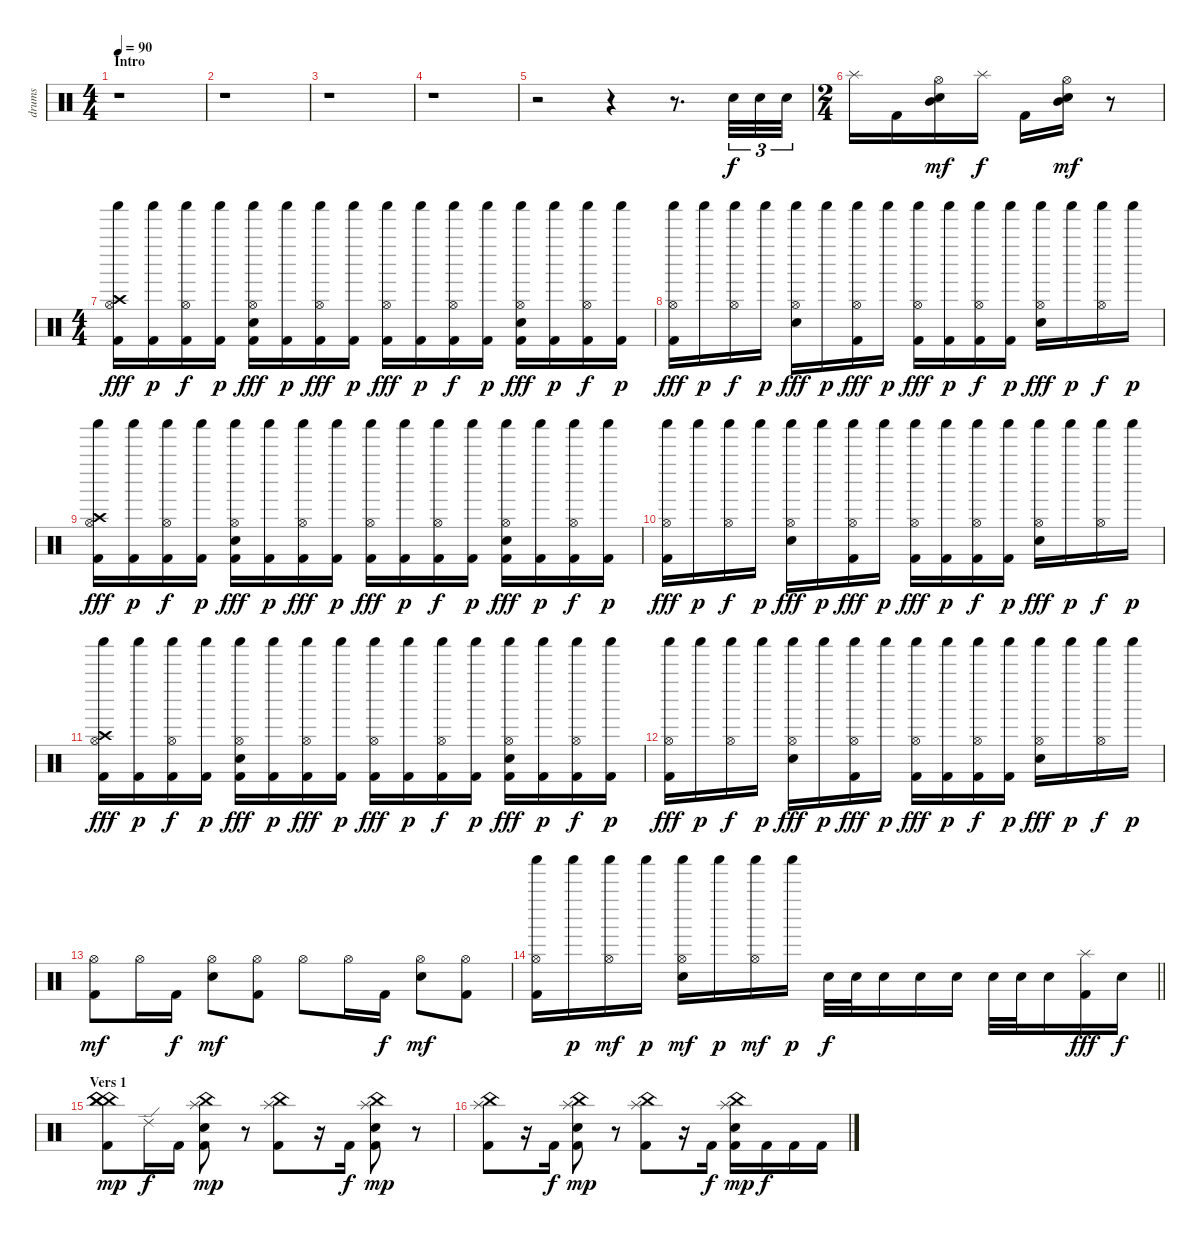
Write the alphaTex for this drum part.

\track ("drums" "drums") {instrument percussion}
\staff {score}
\articulation defaults
\ts (4 4)
\section ("" "Intro")
\tempo 90
\clef neutral
\ks c
r.1{dy f} |
r.1 |
r.1 |
r.1 |
r.2 r.4 r.8{d} "Snare (hit) 2".32{tu (3 2)} "Snare (hit) 2".32{tu (3 2)} "Snare (hit) 2".32{tu (3 2)} |
\ts (2 4)
"Splash (hit)".16 "Kick (hit) 2".16 ("Mid Tom (hit)" "Hi-Hat (open)" "Snare (hit) 2").16{dy mf} "Splash (hit)".16{dy f} "Kick (hit) 2".16 ("Mid Tom (hit)" "Hi-Hat (open)" "Snare (hit) 2").16{dy mf} r.8 |
\ts (4 4)
("Kick (hit) 2" "Crash high (hit)" "Shaker (hit)" "Hi-Hat (open)").16{dy fff} ("Kick (hit) 2" "Shaker (hit)").16{dy p} ("Kick (hit) 2" "Shaker (hit)" "Hi-Hat (open)").16{dy f} ("Kick (hit) 2" "Shaker (hit)").16{dy p} ("Kick (hit) 2" "Shaker (hit)" "Hi-Hat (open)" "Snare (hit) 2").16{dy fff} ("Kick (hit) 2" "Shaker (hit)").16{dy p} ("Kick (hit) 2" "Shaker (hit)" "Hi-Hat (open)").16{dy fff} ("Kick (hit) 2" "Shaker (hit)").16{dy p} ("Kick (hit) 2" "Shaker (hit)" "Hi-Hat (open)").16{dy fff} ("Kick (hit) 2" "Shaker (hit)").16{dy p} ("Kick (hit) 2" "Shaker (hit)" "Hi-Hat (open)").16{dy f} ("Kick (hit) 2" "Shaker (hit)").16{dy p} ("Kick (hit) 2" "Shaker (hit)" "Hi-Hat (open)" "Snare (hit) 2").16{dy fff} ("Kick (hit) 2" "Shaker (hit)").16{dy p} ("Kick (hit) 2" "Shaker (hit)" "Hi-Hat (open)").16{dy f} ("Kick (hit) 2" "Shaker (hit)").16{dy p} |
("Kick (hit) 2" "Shaker (hit)" "Hi-Hat (open)").16{dy fff} "Shaker (hit)".16{dy p} ("Shaker (hit)" "Hi-Hat (open)").16{dy f} "Shaker (hit)".16{dy p} ("Shaker (hit)" "Hi-Hat (open)" "Snare (hit) 2").16{dy fff} "Shaker (hit)".16{dy p} ("Kick (hit) 2" "Shaker (hit)" "Hi-Hat (open)").16{dy fff} "Shaker (hit)".16{dy p} ("Kick (hit) 2" "Shaker (hit)" "Hi-Hat (open)").16{dy fff} ("Kick (hit) 2" "Shaker (hit)").16{dy p} ("Kick (hit) 2" "Shaker (hit)" "Hi-Hat (open)").16{dy f} ("Kick (hit) 2" "Shaker (hit)").16{dy p} ("Shaker (hit)" "Hi-Hat (open)" "Snare (hit) 2").16{dy fff} "Shaker (hit)".16{dy p} ("Shaker (hit)" "Hi-Hat (open)").16{dy f} "Shaker (hit)".16{dy p} |
("Kick (hit) 2" "Crash high (hit)" "Shaker (hit)" "Hi-Hat (open)").16{dy fff} ("Kick (hit) 2" "Shaker (hit)").16{dy p} ("Kick (hit) 2" "Shaker (hit)" "Hi-Hat (open)").16{dy f} ("Kick (hit) 2" "Shaker (hit)").16{dy p} ("Kick (hit) 2" "Shaker (hit)" "Hi-Hat (open)" "Snare (hit) 2").16{dy fff} ("Kick (hit) 2" "Shaker (hit)").16{dy p} ("Kick (hit) 2" "Shaker (hit)" "Hi-Hat (open)").16{dy fff} ("Kick (hit) 2" "Shaker (hit)").16{dy p} ("Kick (hit) 2" "Shaker (hit)" "Hi-Hat (open)").16{dy fff} ("Kick (hit) 2" "Shaker (hit)").16{dy p} ("Kick (hit) 2" "Shaker (hit)" "Hi-Hat (open)").16{dy f} ("Kick (hit) 2" "Shaker (hit)").16{dy p} ("Kick (hit) 2" "Shaker (hit)" "Hi-Hat (open)" "Snare (hit) 2").16{dy fff} ("Kick (hit) 2" "Shaker (hit)").16{dy p} ("Kick (hit) 2" "Shaker (hit)" "Hi-Hat (open)").16{dy f} ("Kick (hit) 2" "Shaker (hit)").16{dy p} |
("Kick (hit) 2" "Shaker (hit)" "Hi-Hat (open)").16{dy fff} "Shaker (hit)".16{dy p} ("Shaker (hit)" "Hi-Hat (open)").16{dy f} "Shaker (hit)".16{dy p} ("Shaker (hit)" "Hi-Hat (open)" "Snare (hit) 2").16{dy fff} "Shaker (hit)".16{dy p} ("Kick (hit) 2" "Shaker (hit)" "Hi-Hat (open)").16{dy fff} "Shaker (hit)".16{dy p} ("Kick (hit) 2" "Shaker (hit)" "Hi-Hat (open)").16{dy fff} ("Kick (hit) 2" "Shaker (hit)").16{dy p} ("Kick (hit) 2" "Shaker (hit)" "Hi-Hat (open)").16{dy f} ("Kick (hit) 2" "Shaker (hit)").16{dy p} ("Shaker (hit)" "Hi-Hat (open)" "Snare (hit) 2").16{dy fff} "Shaker (hit)".16{dy p} ("Shaker (hit)" "Hi-Hat (open)").16{dy f} "Shaker (hit)".16{dy p} |
("Kick (hit) 2" "Crash high (hit)" "Shaker (hit)" "Hi-Hat (open)").16{dy fff} ("Kick (hit) 2" "Shaker (hit)").16{dy p} ("Kick (hit) 2" "Shaker (hit)" "Hi-Hat (open)").16{dy f} ("Kick (hit) 2" "Shaker (hit)").16{dy p} ("Kick (hit) 2" "Shaker (hit)" "Hi-Hat (open)" "Snare (hit) 2").16{dy fff} ("Kick (hit) 2" "Shaker (hit)").16{dy p} ("Kick (hit) 2" "Shaker (hit)" "Hi-Hat (open)").16{dy fff} ("Kick (hit) 2" "Shaker (hit)").16{dy p} ("Kick (hit) 2" "Shaker (hit)" "Hi-Hat (open)").16{dy fff} ("Kick (hit) 2" "Shaker (hit)").16{dy p} ("Kick (hit) 2" "Shaker (hit)" "Hi-Hat (open)").16{dy f} ("Kick (hit) 2" "Shaker (hit)").16{dy p} ("Kick (hit) 2" "Shaker (hit)" "Hi-Hat (open)" "Snare (hit) 2").16{dy fff} ("Kick (hit) 2" "Shaker (hit)").16{dy p} ("Kick (hit) 2" "Shaker (hit)" "Hi-Hat (open)").16{dy f} ("Kick (hit) 2" "Shaker (hit)").16{dy p} |
("Kick (hit) 2" "Shaker (hit)" "Hi-Hat (open)").16{dy fff} "Shaker (hit)".16{dy p} ("Shaker (hit)" "Hi-Hat (open)").16{dy f} "Shaker (hit)".16{dy p} ("Shaker (hit)" "Hi-Hat (open)" "Snare (hit) 2").16{dy fff} "Shaker (hit)".16{dy p} ("Kick (hit) 2" "Shaker (hit)" "Hi-Hat (open)").16{dy fff} "Shaker (hit)".16{dy p} ("Kick (hit) 2" "Shaker (hit)" "Hi-Hat (open)").16{dy fff} ("Kick (hit) 2" "Shaker (hit)").16{dy p} ("Kick (hit) 2" "Shaker (hit)" "Hi-Hat (open)").16{dy f} ("Kick (hit) 2" "Shaker (hit)").16{dy p} ("Shaker (hit)" "Hi-Hat (open)" "Snare (hit) 2").16{dy fff} "Shaker (hit)".16{dy p} ("Shaker (hit)" "Hi-Hat (open)").16{dy f} "Shaker (hit)".16{dy p} |
("Kick (hit) 2" "Hi-Hat (open)").8{dy mf} "Hi-Hat (open)".16 "Kick (hit) 2".16{dy f} ("Hi-Hat (open)" "Snare (hit) 2").8{dy mf} ("Kick (hit) 2" "Hi-Hat (open)").8 "Hi-Hat (open)".8 "Hi-Hat (open)".16 "Kick (hit) 2".16{dy f} ("Hi-Hat (open)" "Snare (hit) 2").8{dy mf} ("Kick (hit) 2" "Hi-Hat (open)").8 |
\barLineRight lightlight
("Kick (hit) 2" "Shaker (hit)" "Hi-Hat (open)").16 "Shaker (hit)".16{dy p} ("Shaker (hit)" "Hi-Hat (open)").16{dy mf} "Shaker (hit)".16{dy p} ("Shaker (hit)" "Hi-Hat (open)" "Snare (hit) 2").16{dy mf} "Shaker (hit)".16{dy p} ("Shaker (hit)" "Hi-Hat (open)").16{dy mf} "Shaker (hit)".16{dy p} "Electric Snare (hit)".32{dy f} "Electric Snare (hit)".32 "Electric Snare (hit)".16 "Electric Snare (hit)".16 "Electric Snare (hit)".16 "Electric Snare (hit)".32 "Electric Snare (hit)".32 "Electric Snare (hit)".16 ("Kick (hit) 2" "Splash (hit)").16{dy fff} "Electric Snare (hit)".16{dy f} |
\section ("" "Vers 1")
("Kick (hit) 2" "China (hit)" "China (hit)" "China (hit)").8{dy mp} "Ride (edge) 2".16{dy f} "Kick (hit) 2".16 ("Kick (hit) 2" "Splash (hit)" "China (hit)" "Snare (hit) 2").8{dy mp} r.8 ("Kick (hit) 2" "Splash (hit)" "China (hit)").8 r.16 "Kick (hit) 2".16{dy f} ("Kick (hit) 2" "Splash (hit)" "China (hit)" "Snare (hit) 2").8{dy mp} r.8 |
("Kick (hit) 2" "Splash (hit)" "China (hit)").8 r.16 "Kick (hit) 2".16{dy f} ("Kick (hit) 2" "Splash (hit)" "China (hit)" "Snare (hit) 2").8{dy mp} r.8 ("Kick (hit) 2" "Splash (hit)" "China (hit)").8 r.16 "Kick (hit) 2".16{dy f} ("Kick (hit) 2" "Splash (hit)" "China (hit)" "Snare (hit) 2").16{dy mp} "Kick (hit) 2".16{dy f} "Kick (hit) 2".16 "Kick (hit) 2".16
